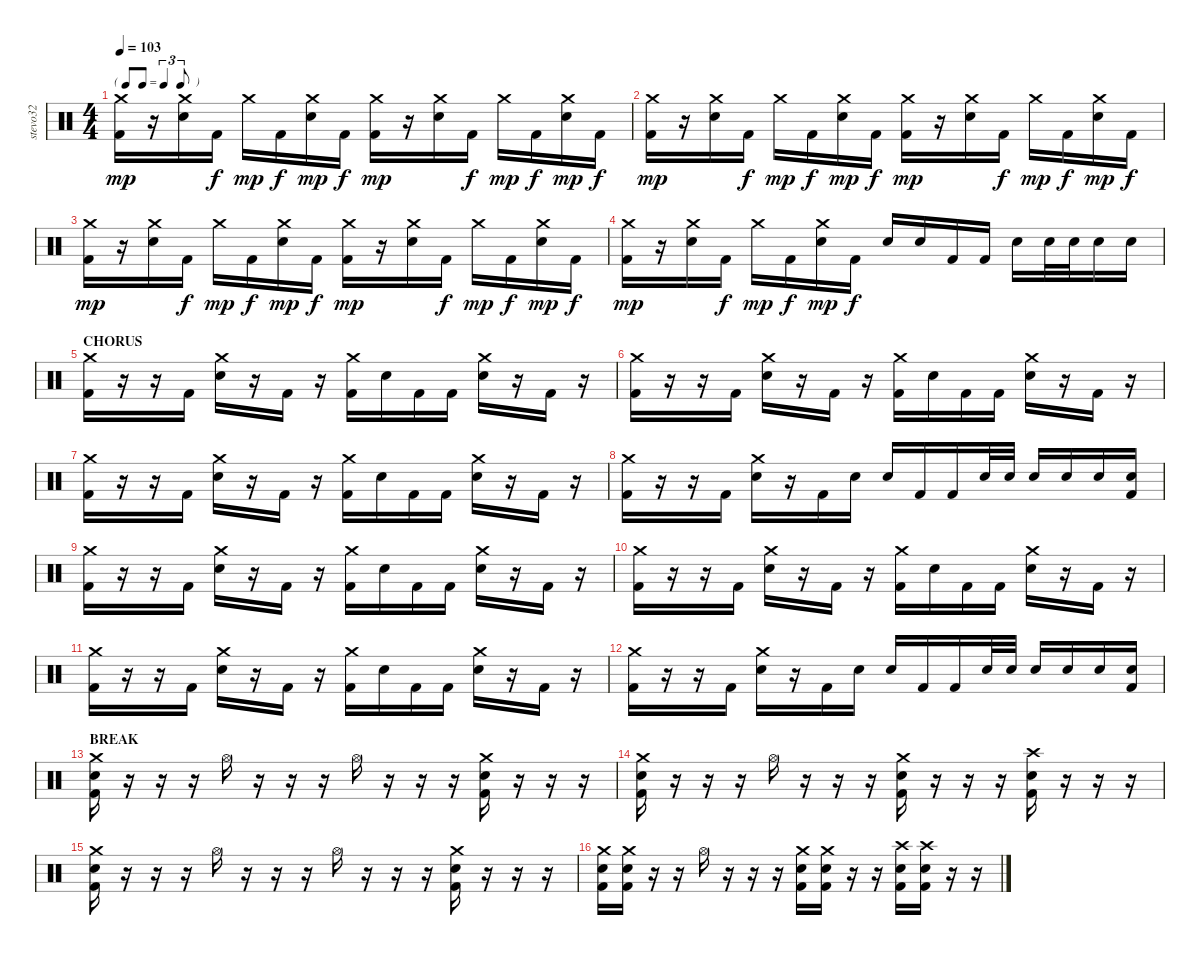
\track ("stevo32" "stevo32") {instrument percussion}
\staff {score}
\articulation defaults
\ts (4 4)
\tf triplet8th
\tempo 103
\clef neutral
\ks c
("Crash medium (hit)" "Kick (hit) 2").16{dy mp} r.16 ("Crash medium (hit)" "Electric Snare (hit)").16 "Kick (hit) 2".16{dy f} "Crash medium (hit)".16{dy mp} "Kick (hit) 2".16{dy f} ("Crash medium (hit)" "Electric Snare (hit)").16{dy mp} "Kick (hit) 2".16{dy f} ("Crash medium (hit)" "Kick (hit) 2").16{dy mp} r.16 ("Crash medium (hit)" "Electric Snare (hit)").16 "Kick (hit) 2".16{dy f} "Crash medium (hit)".16{dy mp} "Kick (hit) 2".16{dy f} ("Crash medium (hit)" "Electric Snare (hit)").16{dy mp} "Kick (hit) 2".16{dy f} |
("Crash medium (hit)" "Kick (hit) 2").16{dy mp} r.16 ("Crash medium (hit)" "Electric Snare (hit)").16 "Kick (hit) 2".16{dy f} "Crash medium (hit)".16{dy mp} "Kick (hit) 2".16{dy f} ("Crash medium (hit)" "Electric Snare (hit)").16{dy mp} "Kick (hit) 2".16{dy f} ("Crash medium (hit)" "Kick (hit) 2").16{dy mp} r.16 ("Crash medium (hit)" "Electric Snare (hit)").16 "Kick (hit) 2".16{dy f} "Crash medium (hit)".16{dy mp} "Kick (hit) 2".16{dy f} ("Crash medium (hit)" "Electric Snare (hit)").16{dy mp} "Kick (hit) 2".16{dy f} |
("Crash medium (hit)" "Kick (hit) 2").16{dy mp} r.16 ("Crash medium (hit)" "Electric Snare (hit)").16 "Kick (hit) 2".16{dy f} "Crash medium (hit)".16{dy mp} "Kick (hit) 2".16{dy f} ("Crash medium (hit)" "Electric Snare (hit)").16{dy mp} "Kick (hit) 2".16{dy f} ("Crash medium (hit)" "Kick (hit) 2").16{dy mp} r.16 ("Crash medium (hit)" "Electric Snare (hit)").16 "Kick (hit) 2".16{dy f} "Crash medium (hit)".16{dy mp} "Kick (hit) 2".16{dy f} ("Crash medium (hit)" "Electric Snare (hit)").16{dy mp} "Kick (hit) 2".16{dy f} |
("Crash medium (hit)" "Kick (hit) 2").16{dy mp} r.16 ("Crash medium (hit)" "Electric Snare (hit)").16 "Kick (hit) 2".16{dy f} "Crash medium (hit)".16{dy mp} "Kick (hit) 2".16{dy f} ("Crash medium (hit)" "Electric Snare (hit)").16{dy mp} "Kick (hit) 2".16{dy f} "Electric Snare (hit)".16 "Electric Snare (hit)".16 "Kick (hit) 2".16 "Kick (hit) 2".16 "Electric Snare (hit)".16 "Electric Snare (hit)".32 "Electric Snare (hit)".32 "Electric Snare (hit)".16 "Electric Snare (hit)".16 |
\section ("" "CHORUS")
("Crash medium (hit)" "Kick (hit) 2").16 r.16 r.16 "Kick (hit) 2".16 ("Crash medium (hit)" "Electric Snare (hit)").16 r.16 "Kick (hit) 2".16 r.16 ("Crash medium (hit)" "Kick (hit) 2").16 "Electric Snare (hit)".16 "Kick (hit) 2".16 "Kick (hit) 2".16 ("Crash medium (hit)" "Electric Snare (hit)").16 r.16 "Kick (hit) 2".16 r.16 |
("Crash medium (hit)" "Kick (hit) 2").16 r.16 r.16 "Kick (hit) 2".16 ("Crash medium (hit)" "Electric Snare (hit)").16 r.16 "Kick (hit) 2".16 r.16 ("Crash medium (hit)" "Kick (hit) 2").16 "Electric Snare (hit)".16 "Kick (hit) 2".16 "Kick (hit) 2".16 ("Crash medium (hit)" "Electric Snare (hit)").16 r.16 "Kick (hit) 2".16 r.16 |
("Crash medium (hit)" "Kick (hit) 2").16 r.16 r.16 "Kick (hit) 2".16 ("Crash medium (hit)" "Electric Snare (hit)").16 r.16 "Kick (hit) 2".16 r.16 ("Crash medium (hit)" "Kick (hit) 2").16 "Electric Snare (hit)".16 "Kick (hit) 2".16 "Kick (hit) 2".16 ("Crash medium (hit)" "Electric Snare (hit)").16 r.16 "Kick (hit) 2".16 r.16 |
("Crash medium (hit)" "Kick (hit) 2").16 r.16 r.16 "Kick (hit) 2".16 ("Crash medium (hit)" "Electric Snare (hit)").16 r.16 "Kick (hit) 2".16 "Electric Snare (hit)".16 "Electric Snare (hit)".16 "Kick (hit) 2".16 "Kick (hit) 2".16 "Electric Snare (hit)".32 "Electric Snare (hit)".32 "Electric Snare (hit)".16 "Electric Snare (hit)".16 "Electric Snare (hit)".16 ("Electric Snare (hit)" "Kick (hit) 2").16 |
("Crash medium (hit)" "Kick (hit) 2").16 r.16 r.16 "Kick (hit) 2".16 ("Crash medium (hit)" "Electric Snare (hit)").16 r.16 "Kick (hit) 2".16 r.16 ("Crash medium (hit)" "Kick (hit) 2").16 "Electric Snare (hit)".16 "Kick (hit) 2".16 "Kick (hit) 2".16 ("Crash medium (hit)" "Electric Snare (hit)").16 r.16 "Kick (hit) 2".16 r.16 |
("Crash medium (hit)" "Kick (hit) 2").16 r.16 r.16 "Kick (hit) 2".16 ("Crash medium (hit)" "Electric Snare (hit)").16 r.16 "Kick (hit) 2".16 r.16 ("Crash medium (hit)" "Kick (hit) 2").16 "Electric Snare (hit)".16 "Kick (hit) 2".16 "Kick (hit) 2".16 ("Crash medium (hit)" "Electric Snare (hit)").16 r.16 "Kick (hit) 2".16 r.16 |
("Crash medium (hit)" "Kick (hit) 2").16 r.16 r.16 "Kick (hit) 2".16 ("Crash medium (hit)" "Electric Snare (hit)").16 r.16 "Kick (hit) 2".16 r.16 ("Crash medium (hit)" "Kick (hit) 2").16 "Electric Snare (hit)".16 "Kick (hit) 2".16 "Kick (hit) 2".16 ("Crash medium (hit)" "Electric Snare (hit)").16 r.16 "Kick (hit) 2".16 r.16 |
("Crash medium (hit)" "Kick (hit) 2").16 r.16 r.16 "Kick (hit) 2".16 ("Crash medium (hit)" "Electric Snare (hit)").16 r.16 "Kick (hit) 2".16 "Electric Snare (hit)".16 "Electric Snare (hit)".16 "Kick (hit) 2".16 "Kick (hit) 2".16 "Electric Snare (hit)".32 "Electric Snare (hit)".32 "Electric Snare (hit)".16 "Electric Snare (hit)".16 "Electric Snare (hit)".16 ("Electric Snare (hit)" "Kick (hit) 2").16 |
\section ("" "BREAK")
("Crash medium (hit)" "Electric Snare (hit)" "Kick (hit) 2").16 r.16 r.16 r.16 "Hi-Hat (open)".16 r.16 r.16 r.16 "Hi-Hat (open)".16 r.16 r.16 r.16 ("Crash medium (hit)" "Electric Snare (hit)" "Kick (hit) 2").16 r.16 r.16 r.16 |
("Crash medium (hit)" "Electric Snare (hit)" "Kick (hit) 2").16 r.16 r.16 r.16 "Hi-Hat (open)".16 r.16 r.16 r.16 ("Crash medium (hit)" "Electric Snare (hit)" "Kick (hit) 2").16 r.16 r.16 r.16 ("Crash high (hit)" "Electric Snare (hit)" "Kick (hit) 2").16 r.16 r.16 r.16 |
("Crash medium (hit)" "Electric Snare (hit)" "Kick (hit) 2").16 r.16 r.16 r.16 "Hi-Hat (open)".16 r.16 r.16 r.16 "Hi-Hat (open)".16 r.16 r.16 r.16 ("Crash medium (hit)" "Electric Snare (hit)" "Kick (hit) 2").16 r.16 r.16 r.16 |
("Crash medium (hit)" "Electric Snare (hit)" "Kick (hit) 2").16 ("Crash medium (hit)" "Electric Snare (hit)" "Kick (hit) 2").16 r.16 r.16 "Hi-Hat (open)".16 r.16 r.16 r.16 ("Crash medium (hit)" "Electric Snare (hit)" "Kick (hit) 2").16 ("Crash medium (hit)" "Kick (hit) 2" "Electric Snare (hit)").16 r.16 r.16 ("Crash high (hit)" "Electric Snare (hit)" "Kick (hit) 2").16 ("Crash high (hit)" "Electric Snare (hit)" "Kick (hit) 2").16 r.16 r.16
